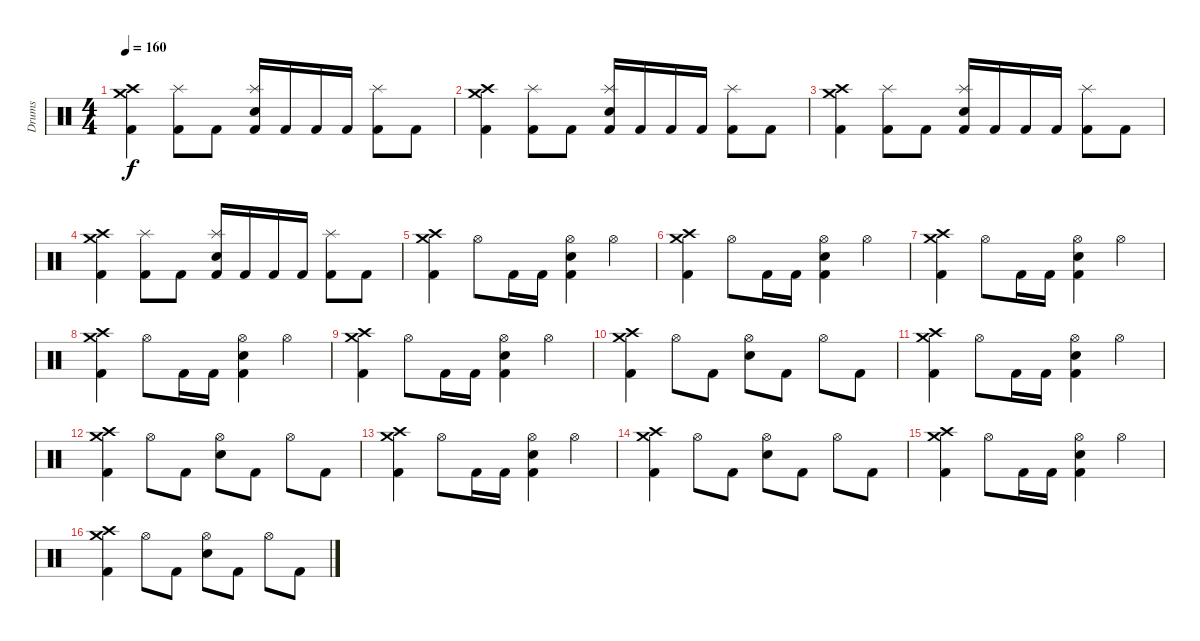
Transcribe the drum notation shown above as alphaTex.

\track ("Drums" "Drums") {instrument percussion}
\staff {score}
\articulation defaults
\ts (4 4)
\tempo 160
\clef neutral
\ks c
("Crash high (hit)" "Crash medium (hit)" "Kick (hit) 2").4{dy f} ("Splash (hit)" "Kick (hit) 2").8 "Kick (hit) 2".8 ("Splash (hit)" "Snare (hit) 2" "Kick (hit) 2").16 "Kick (hit) 2".16 "Kick (hit) 2".16 "Kick (hit) 2".16 ("Splash (hit)" "Kick (hit) 2").8 "Kick (hit) 2".8 |
("Crash high (hit)" "Crash medium (hit)" "Kick (hit) 2").4 ("Splash (hit)" "Kick (hit) 2").8 "Kick (hit) 2".8 ("Splash (hit)" "Snare (hit) 2" "Kick (hit) 2").16 "Kick (hit) 2".16 "Kick (hit) 2".16 "Kick (hit) 2".16 ("Splash (hit)" "Kick (hit) 2").8 "Kick (hit) 2".8 |
("Crash high (hit)" "Crash medium (hit)" "Kick (hit) 2").4 ("Splash (hit)" "Kick (hit) 2").8 "Kick (hit) 2".8 ("Splash (hit)" "Snare (hit) 2" "Kick (hit) 2").16 "Kick (hit) 2".16 "Kick (hit) 2".16 "Kick (hit) 2".16 ("Splash (hit)" "Kick (hit) 2").8 "Kick (hit) 2".8 |
("Crash high (hit)" "Crash medium (hit)" "Kick (hit) 2").4 ("Splash (hit)" "Kick (hit) 2").8 "Kick (hit) 2".8 ("Splash (hit)" "Snare (hit) 2" "Kick (hit) 2").16 "Kick (hit) 2".16 "Kick (hit) 2".16 "Kick (hit) 2".16 ("Splash (hit)" "Kick (hit) 2").8 "Kick (hit) 2".8 |
("Crash medium (hit)" "Crash high (hit)" "Kick (hit) 2").4 "Hi-Hat (open)".8 "Kick (hit) 2".16 "Kick (hit) 2".16 ("Hi-Hat (open)" "Snare (hit) 2" "Kick (hit) 2").4 "Hi-Hat (open)".4 |
("Crash medium (hit)" "Crash high (hit)" "Kick (hit) 2").4 "Hi-Hat (open)".8 "Kick (hit) 2".16 "Kick (hit) 2".16 ("Hi-Hat (open)" "Snare (hit) 2" "Kick (hit) 2").4 "Hi-Hat (open)".4 |
("Crash medium (hit)" "Crash high (hit)" "Kick (hit) 2").4 "Hi-Hat (open)".8 "Kick (hit) 2".16 "Kick (hit) 2".16 ("Hi-Hat (open)" "Snare (hit) 2" "Kick (hit) 2").4 "Hi-Hat (open)".4 |
("Crash medium (hit)" "Crash high (hit)" "Kick (hit) 2").4 "Hi-Hat (open)".8 "Kick (hit) 2".16 "Kick (hit) 2".16 ("Hi-Hat (open)" "Snare (hit) 2" "Kick (hit) 2").4 "Hi-Hat (open)".4 |
("Crash medium (hit)" "Crash high (hit)" "Kick (hit) 2").4 "Hi-Hat (open)".8 "Kick (hit) 2".16 "Kick (hit) 2".16 ("Hi-Hat (open)" "Snare (hit) 2" "Kick (hit) 2").4 "Hi-Hat (open)".4 |
("Crash medium (hit)" "Crash high (hit)" "Kick (hit) 2").4 "Hi-Hat (open)".8 "Kick (hit) 2".8 ("Hi-Hat (open)" "Snare (hit) 2").8 "Kick (hit) 2".8 "Hi-Hat (open)".8 "Kick (hit) 2".8 |
("Crash medium (hit)" "Crash high (hit)" "Kick (hit) 2").4 "Hi-Hat (open)".8 "Kick (hit) 2".16 "Kick (hit) 2".16 ("Hi-Hat (open)" "Snare (hit) 2" "Kick (hit) 2").4 "Hi-Hat (open)".4 |
("Crash medium (hit)" "Crash high (hit)" "Kick (hit) 2").4 "Hi-Hat (open)".8 "Kick (hit) 2".8 ("Hi-Hat (open)" "Snare (hit) 2").8 "Kick (hit) 2".8 "Hi-Hat (open)".8 "Kick (hit) 2".8 |
("Crash medium (hit)" "Crash high (hit)" "Kick (hit) 2").4 "Hi-Hat (open)".8 "Kick (hit) 2".16 "Kick (hit) 2".16 ("Hi-Hat (open)" "Snare (hit) 2" "Kick (hit) 2").4 "Hi-Hat (open)".4 |
("Crash medium (hit)" "Crash high (hit)" "Kick (hit) 2").4 "Hi-Hat (open)".8 "Kick (hit) 2".8 ("Hi-Hat (open)" "Snare (hit) 2").8 "Kick (hit) 2".8 "Hi-Hat (open)".8 "Kick (hit) 2".8 |
("Crash medium (hit)" "Crash high (hit)" "Kick (hit) 2").4 "Hi-Hat (open)".8 "Kick (hit) 2".16 "Kick (hit) 2".16 ("Hi-Hat (open)" "Snare (hit) 2" "Kick (hit) 2").4 "Hi-Hat (open)".4 |
("Crash medium (hit)" "Crash high (hit)" "Kick (hit) 2").4 "Hi-Hat (open)".8 "Kick (hit) 2".8 ("Hi-Hat (open)" "Snare (hit) 2").8 "Kick (hit) 2".8 "Hi-Hat (open)".8 "Kick (hit) 2".8
